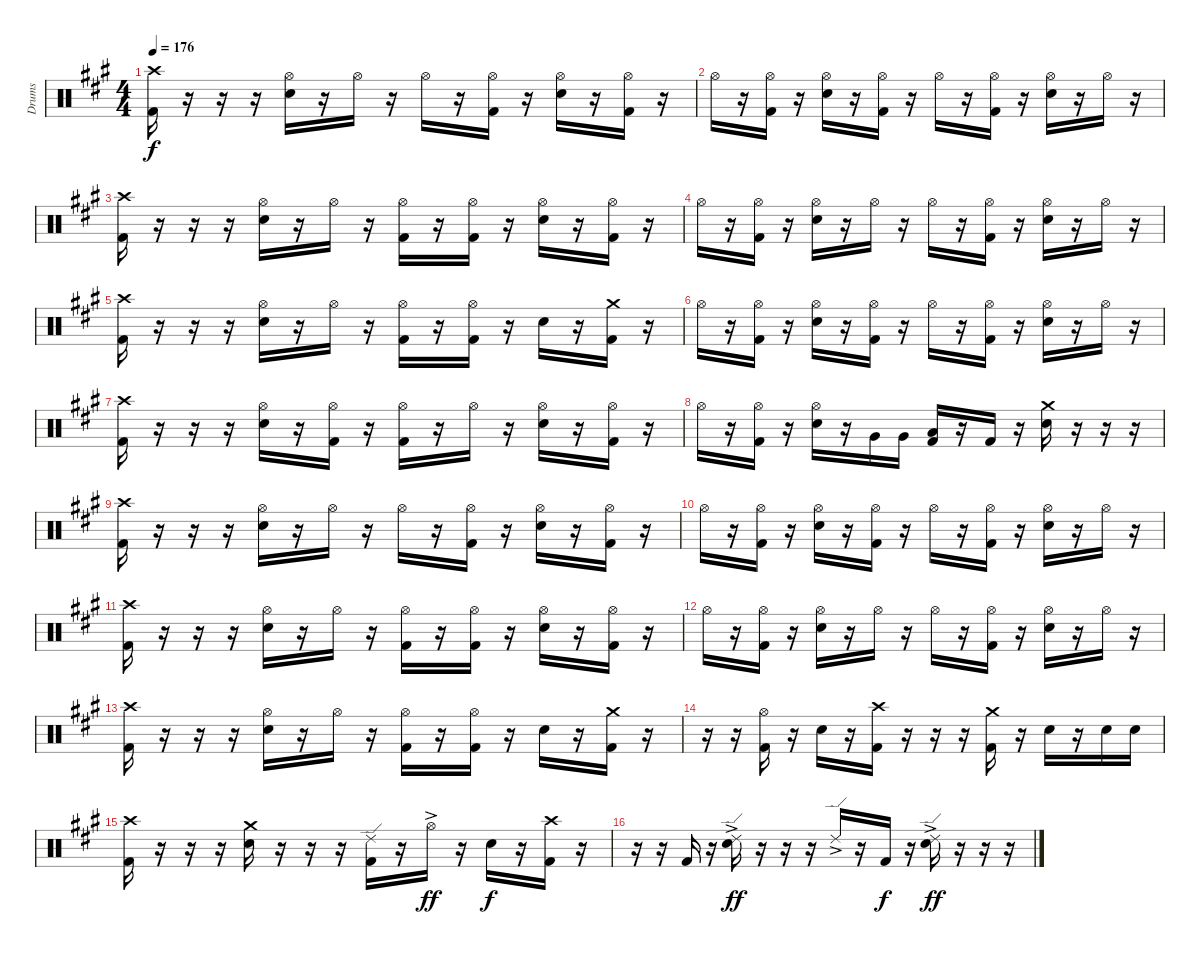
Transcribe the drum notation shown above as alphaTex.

\track ("Drums" "Drums") {instrument percussion}
\staff {score}
\articulation defaults
\ts (4 4)
\tempo 176
\clef neutral
\ks a
("Crash high (hit)" "Kick (hit) 2").16{dy f} r.16 r.16 r.16 ("Hi-Hat (open)" "Electric Snare (hit)").16 r.16 "Hi-Hat (open)".16 r.16 "Hi-Hat (open)".16 r.16 ("Hi-Hat (open)" "Kick (hit) 2").16 r.16 ("Hi-Hat (open)" "Electric Snare (hit)").16 r.16 ("Hi-Hat (open)" "Kick (hit) 2").16 r.16 |
"Hi-Hat (open)".16 r.16 ("Hi-Hat (open)" "Kick (hit) 2").16 r.16 ("Hi-Hat (open)" "Electric Snare (hit)").16 r.16 ("Hi-Hat (open)" "Kick (hit) 2").16 r.16 "Hi-Hat (open)".16 r.16 ("Hi-Hat (open)" "Kick (hit) 2").16 r.16 ("Hi-Hat (open)" "Electric Snare (hit)").16 r.16 "Hi-Hat (open)".16 r.16 |
("Crash high (hit)" "Kick (hit) 2").16 r.16 r.16 r.16 ("Hi-Hat (open)" "Electric Snare (hit)").16 r.16 "Hi-Hat (open)".16 r.16 ("Hi-Hat (open)" "Kick (hit) 2").16 r.16 ("Hi-Hat (open)" "Kick (hit) 2").16 r.16 ("Hi-Hat (open)" "Electric Snare (hit)").16 r.16 ("Hi-Hat (open)" "Kick (hit) 2").16 r.16 |
"Hi-Hat (open)".16 r.16 ("Hi-Hat (open)" "Kick (hit) 2").16 r.16 ("Hi-Hat (open)" "Electric Snare (hit)").16 r.16 "Hi-Hat (open)".16 r.16 "Hi-Hat (open)".16 r.16 ("Hi-Hat (open)" "Kick (hit) 2").16 r.16 ("Hi-Hat (open)" "Electric Snare (hit)").16 r.16 "Hi-Hat (open)".16 r.16 |
("Crash high (hit)" "Kick (hit) 2").16 r.16 r.16 r.16 ("Hi-Hat (open)" "Electric Snare (hit)").16 r.16 "Hi-Hat (open)".16 r.16 ("Hi-Hat (open)" "Kick (hit) 2").16 r.16 ("Hi-Hat (open)" "Kick (hit) 2").16 r.16 "Electric Snare (hit)".16 r.16 ("Crash medium (hit)" "Kick (hit) 2").16 r.16 |
"Hi-Hat (open)".16 r.16 ("Hi-Hat (open)" "Kick (hit) 2").16 r.16 ("Hi-Hat (open)" "Electric Snare (hit)").16 r.16 ("Hi-Hat (open)" "Kick (hit) 2").16 r.16 "Hi-Hat (open)".16 r.16 ("Hi-Hat (open)" "Kick (hit) 2").16 r.16 ("Hi-Hat (open)" "Electric Snare (hit)").16 r.16 "Hi-Hat (open)".16 r.16 |
("Crash high (hit)" "Kick (hit) 2").16 r.16 r.16 r.16 ("Hi-Hat (open)" "Electric Snare (hit)").16 r.16 ("Hi-Hat (open)" "Kick (hit) 2").16 r.16 ("Hi-Hat (open)" "Kick (hit) 2").16 r.16 "Hi-Hat (open)".16 r.16 ("Hi-Hat (open)" "Electric Snare (hit)").16 r.16 ("Hi-Hat (open)" "Kick (hit) 2").16 r.16 |
"Hi-Hat (open)".16 r.16 ("Hi-Hat (open)" "Kick (hit) 2").16 r.16 ("Hi-Hat (open)" "Electric Snare (hit)").16 r.16 "Very Low Tom (hit)".16 "Very Low Tom (hit)".16 ("Low Floor Tom (hit)" "Kick (hit) 2").16 r.16 "Kick (hit) 2".16 r.16 ("Crash medium (hit)" "Electric Snare (hit)").16 r.16 r.16 r.16 |
("Crash high (hit)" "Kick (hit) 2").16 r.16 r.16 r.16 ("Hi-Hat (open)" "Electric Snare (hit)").16 r.16 "Hi-Hat (open)".16 r.16 "Hi-Hat (open)".16 r.16 ("Hi-Hat (open)" "Kick (hit) 2").16 r.16 ("Hi-Hat (open)" "Electric Snare (hit)").16 r.16 ("Hi-Hat (open)" "Kick (hit) 2").16 r.16 |
"Hi-Hat (open)".16 r.16 ("Hi-Hat (open)" "Kick (hit) 2").16 r.16 ("Hi-Hat (open)" "Electric Snare (hit)").16 r.16 ("Hi-Hat (open)" "Kick (hit) 2").16 r.16 "Hi-Hat (open)".16 r.16 ("Hi-Hat (open)" "Kick (hit) 2").16 r.16 ("Hi-Hat (open)" "Electric Snare (hit)").16 r.16 "Hi-Hat (open)".16 r.16 |
("Crash high (hit)" "Kick (hit) 2").16 r.16 r.16 r.16 ("Hi-Hat (open)" "Electric Snare (hit)").16 r.16 "Hi-Hat (open)".16 r.16 ("Hi-Hat (open)" "Kick (hit) 2").16 r.16 ("Hi-Hat (open)" "Kick (hit) 2").16 r.16 ("Hi-Hat (open)" "Electric Snare (hit)").16 r.16 ("Hi-Hat (open)" "Kick (hit) 2").16 r.16 |
"Hi-Hat (open)".16 r.16 ("Hi-Hat (open)" "Kick (hit) 2").16 r.16 ("Hi-Hat (open)" "Electric Snare (hit)").16 r.16 "Hi-Hat (open)".16 r.16 "Hi-Hat (open)".16 r.16 ("Hi-Hat (open)" "Kick (hit) 2").16 r.16 ("Hi-Hat (open)" "Electric Snare (hit)").16 r.16 "Hi-Hat (open)".16 r.16 |
("Crash high (hit)" "Kick (hit) 2").16 r.16 r.16 r.16 ("Hi-Hat (open)" "Electric Snare (hit)").16 r.16 "Hi-Hat (open)".16 r.16 ("Hi-Hat (open)" "Kick (hit) 2").16 r.16 ("Hi-Hat (open)" "Kick (hit) 2").16 r.16 "Electric Snare (hit)".16 r.16 ("Crash medium (hit)" "Kick (hit) 2").16 r.16 |
r.16 r.16 ("Hi-Hat (open)" "Kick (hit) 2").16 r.16 "Electric Snare (hit)".16 r.16 ("Crash high (hit)" "Kick (hit) 2").16 r.16 r.16 r.16 ("Crash medium (hit)" "Kick (hit) 2").16 r.16 "Electric Snare (hit)".16 r.16 "Electric Snare (hit)".16 "Electric Snare (hit)".16 |
("Crash high (hit)" "Kick (hit) 2").16 r.16 r.16 r.16 ("Crash medium (hit)" "Electric Snare (hit)").16 r.16 r.16 r.16 ("Ride (edge) 2" "Kick (hit) 2").16 r.16 "Hi-Hat (open)"{ac}.16{dy ff} r.16 "Electric Snare (hit)".16{dy f} r.16 ("Crash high (hit)" "Kick (hit) 2").16 r.16 |
r.16 r.16 "Kick (hit) 2".16 r.16 ("Ride (edge) 2"{ac} "Electric Snare (hit)").16{dy ff} r.16 r.16 r.16 "Ride (edge) 2"{ac}.16 r.16 "Kick (hit) 2".16{dy f} r.16 ("Ride (edge) 2"{ac} "Electric Snare (hit)").16{dy ff} r.16 r.16 r.16
